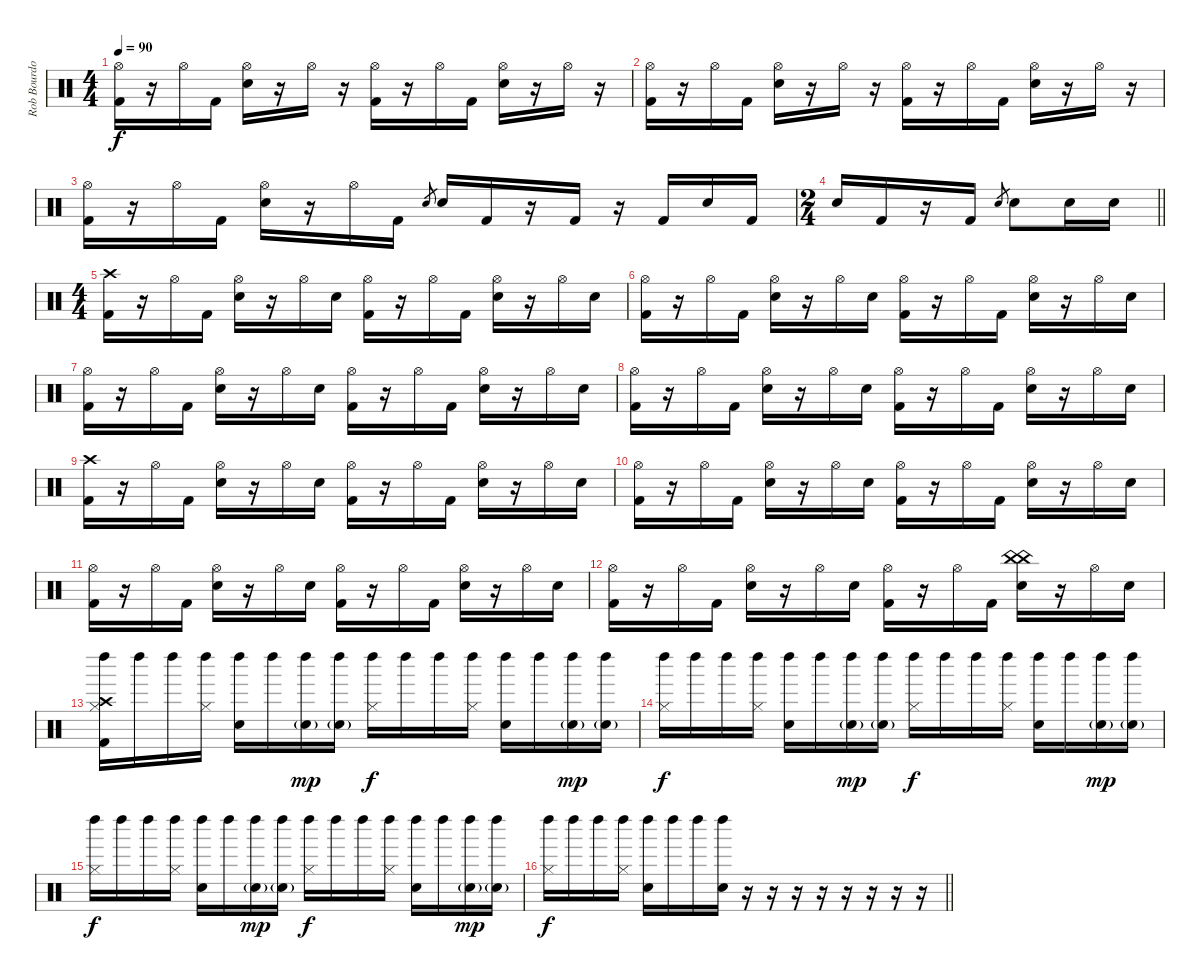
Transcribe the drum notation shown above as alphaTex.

\track ("Rob Bourdon - Drums" "Rob Bourdo") {instrument percussion}
\staff {score}
\articulation defaults
\ts (4 4)
\tempo 90
\clef neutral
\ks c
("Hi-Hat (open)" "Kick (hit) 2").16{dy f} r.16 "Hi-Hat (open)".16 "Kick (hit) 2".16 ("Hi-Hat (open)" "Electric Snare (hit)").16 r.16 "Hi-Hat (open)".16 r.16 ("Hi-Hat (open)" "Kick (hit) 2").16 r.16 "Hi-Hat (open)".16 "Kick (hit) 2".16 ("Hi-Hat (open)" "Electric Snare (hit)").16 r.16 "Hi-Hat (open)".16 r.16 |
("Hi-Hat (open)" "Kick (hit) 2").16 r.16 "Hi-Hat (open)".16 "Kick (hit) 2".16 ("Hi-Hat (open)" "Electric Snare (hit)").16 r.16 "Hi-Hat (open)".16 r.16 ("Hi-Hat (open)" "Kick (hit) 2").16 r.16 "Hi-Hat (open)".16 "Kick (hit) 2".16 ("Hi-Hat (open)" "Electric Snare (hit)").16 r.16 "Hi-Hat (open)".16 r.16 |
("Hi-Hat (open)" "Kick (hit) 2").16 r.16 "Hi-Hat (open)".16 "Kick (hit) 2".16 ("Hi-Hat (open)" "Electric Snare (hit)").16 r.16 "Hi-Hat (open)".16 "Kick (hit) 2".16 "Electric Snare (hit)".8{gr} "Electric Snare (hit)".16 "Kick (hit) 2".16 r.16 "Kick (hit) 2".16 r.16 "Kick (hit) 2".16 "Electric Snare (hit)".16 "Kick (hit) 2".16 |
\ts (2 4)
\barLineRight lightlight "Electric Snare (hit)".16 "Kick (hit) 2".16
r.16 "Kick (hit) 2".16 "Electric Snare (hit)".8{gr} "Electric Snare (hit)".8 "Electric Snare (hit)".16 "Electric Snare (hit)".16 |
\ts (4 4)
("Crash high (hit)" "Kick (hit) 2").16 r.16 "Hi-Hat (open)".16 "Kick (hit) 2".16 ("Hi-Hat (open)" "Electric Snare (hit)").16 r.16 "Hi-Hat (open)".16 "Electric Snare (hit)".16 ("Hi-Hat (open)" "Kick (hit) 2").16 r.16 "Hi-Hat (open)".16 "Kick (hit) 2".16 ("Hi-Hat (open)" "Electric Snare (hit)").16 r.16 "Hi-Hat (open)".16 "Electric Snare (hit)".16 |
("Hi-Hat (open)" "Kick (hit) 2").16 r.16 "Hi-Hat (open)".16 "Kick (hit) 2".16 ("Hi-Hat (open)" "Electric Snare (hit)").16 r.16 "Hi-Hat (open)".16 "Electric Snare (hit)".16 ("Hi-Hat (open)" "Kick (hit) 2").16 r.16 "Hi-Hat (open)".16 "Kick (hit) 2".16 ("Hi-Hat (open)" "Electric Snare (hit)").16 r.16 "Hi-Hat (open)".16 "Electric Snare (hit)".16 |
("Hi-Hat (open)" "Kick (hit) 2").16 r.16 "Hi-Hat (open)".16 "Kick (hit) 2".16 ("Hi-Hat (open)" "Electric Snare (hit)").16 r.16 "Hi-Hat (open)".16 "Electric Snare (hit)".16 ("Hi-Hat (open)" "Kick (hit) 2").16 r.16 "Hi-Hat (open)".16 "Kick (hit) 2".16 ("Hi-Hat (open)" "Electric Snare (hit)").16 r.16 "Hi-Hat (open)".16 "Electric Snare (hit)".16 |
("Hi-Hat (open)" "Kick (hit) 2").16 r.16 "Hi-Hat (open)".16 "Kick (hit) 2".16 ("Hi-Hat (open)" "Electric Snare (hit)").16 r.16 "Hi-Hat (open)".16 "Electric Snare (hit)".16 ("Hi-Hat (open)" "Kick (hit) 2").16 r.16 "Hi-Hat (open)".16 "Kick (hit) 2".16 ("Hi-Hat (open)" "Electric Snare (hit)").16 r.16 "Hi-Hat (open)".16 "Electric Snare (hit)".16 |
("Crash high (hit)" "Kick (hit) 2").16 r.16 "Hi-Hat (open)".16 "Kick (hit) 2".16 ("Hi-Hat (open)" "Electric Snare (hit)").16 r.16 "Hi-Hat (open)".16 "Electric Snare (hit)".16 ("Hi-Hat (open)" "Kick (hit) 2").16 r.16 "Hi-Hat (open)".16 "Kick (hit) 2".16 ("Hi-Hat (open)" "Electric Snare (hit)").16 r.16 "Hi-Hat (open)".16 "Electric Snare (hit)".16 |
("Hi-Hat (open)" "Kick (hit) 2").16 r.16 "Hi-Hat (open)".16 "Kick (hit) 2".16 ("Hi-Hat (open)" "Electric Snare (hit)").16 r.16 "Hi-Hat (open)".16 "Electric Snare (hit)".16 ("Hi-Hat (open)" "Kick (hit) 2").16 r.16 "Hi-Hat (open)".16 "Kick (hit) 2".16 ("Hi-Hat (open)" "Electric Snare (hit)").16 r.16 "Hi-Hat (open)".16 "Electric Snare (hit)".16 |
("Hi-Hat (open)" "Kick (hit) 2").16 r.16 "Hi-Hat (open)".16 "Kick (hit) 2".16 ("Hi-Hat (open)" "Electric Snare (hit)").16 r.16 "Hi-Hat (open)".16 "Electric Snare (hit)".16 ("Hi-Hat (open)" "Kick (hit) 2").16 r.16 "Hi-Hat (open)".16 "Kick (hit) 2".16 ("Hi-Hat (open)" "Electric Snare (hit)").16 r.16 "Hi-Hat (open)".16 "Electric Snare (hit)".16 |
("Hi-Hat (open)" "Kick (hit) 2").16 r.16 "Hi-Hat (open)".16 "Kick (hit) 2".16 ("Hi-Hat (open)" "Electric Snare (hit)").16 r.16 "Hi-Hat (open)".16 "Electric Snare (hit)".16 ("Hi-Hat (open)" "Kick (hit) 2").16 r.16 "Hi-Hat (open)".16 "Kick (hit) 2".16 ("China (hit)" "China (hit)" "Electric Snare (hit)").16 r.16 "Hi-Hat (open)".16 "Electric Snare (hit)".16 |
("Crash high (hit)" "Left Maraca (hit)" "Kick (hit) 2" "Hi-Hat (closed)").16 "Left Maraca (hit)".16 "Left Maraca (hit)".16 ("Left Maraca (hit)" "Hi-Hat (closed)").16 ("Left Maraca (hit)" "Hand Clap (hit)").16 "Left Maraca (hit)".16 ("Left Maraca (hit)" "Hand Clap (hit)"{g}).16{dy mp} ("Left Maraca (hit)" "Hand Clap (hit)"{g}).16 ("Left Maraca (hit)" "Hi-Hat (closed)").16{dy f} "Left Maraca (hit)".16 "Left Maraca (hit)".16 ("Left Maraca (hit)" "Hi-Hat (closed)").16 ("Left Maraca (hit)" "Hand Clap (hit)").16 "Left Maraca (hit)".16 ("Left Maraca (hit)" "Hand Clap (hit)"{g}).16{dy mp} ("Left Maraca (hit)" "Hand Clap (hit)"{g}).16 |
("Left Maraca (hit)" "Hi-Hat (closed)").16{dy f} "Left Maraca (hit)".16 "Left Maraca (hit)".16 ("Left Maraca (hit)" "Hi-Hat (closed)").16 ("Left Maraca (hit)" "Hand Clap (hit)").16 "Left Maraca (hit)".16 ("Left Maraca (hit)" "Hand Clap (hit)"{g}).16{dy mp} ("Left Maraca (hit)" "Hand Clap (hit)"{g}).16 ("Left Maraca (hit)" "Hi-Hat (closed)").16{dy f} "Left Maraca (hit)".16 "Left Maraca (hit)".16 ("Left Maraca (hit)" "Hi-Hat (closed)").16 ("Left Maraca (hit)" "Hand Clap (hit)").16 "Left Maraca (hit)".16 ("Left Maraca (hit)" "Hand Clap (hit)"{g}).16{dy mp} ("Left Maraca (hit)" "Hand Clap (hit)"{g}).16 |
("Left Maraca (hit)" "Hi-Hat (closed)").16{dy f} "Left Maraca (hit)".16 "Left Maraca (hit)".16 ("Left Maraca (hit)" "Hi-Hat (closed)").16 ("Left Maraca (hit)" "Hand Clap (hit)").16 "Left Maraca (hit)".16 ("Left Maraca (hit)" "Hand Clap (hit)"{g}).16{dy mp} ("Left Maraca (hit)" "Hand Clap (hit)"{g}).16 ("Left Maraca (hit)" "Hi-Hat (closed)").16{dy f} "Left Maraca (hit)".16 "Left Maraca (hit)".16 ("Left Maraca (hit)" "Hi-Hat (closed)").16 ("Left Maraca (hit)" "Hand Clap (hit)").16 "Left Maraca (hit)".16 ("Left Maraca (hit)" "Hand Clap (hit)"{g}).16{dy mp} ("Left Maraca (hit)" "Hand Clap (hit)"{g}).16 |
\barLineRight lightlight
("Left Maraca (hit)" "Hi-Hat (closed)").16{dy f} "Left Maraca (hit)".16 "Left Maraca (hit)".16 ("Left Maraca (hit)" "Hi-Hat (closed)").16 ("Left Maraca (hit)" "Hand Clap (hit)").16 "Left Maraca (hit)".16 "Left Maraca (hit)".16 ("Left Maraca (hit)" "Hand Clap (hit)").16 r.16 r.16 r.16 r.16 r.16 r.16 r.16 r.16
